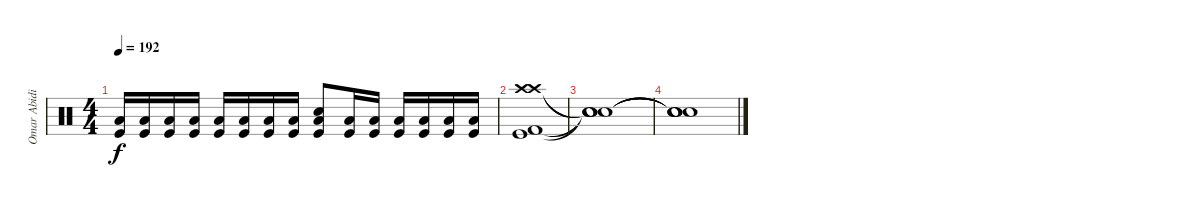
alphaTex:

\track ("Omar Abidi" "Omar Abidi") {instrument percussion}
\staff {score}
\articulation defaults
\ts (4 4)
\tempo 192
\clef neutral
\ks c
("Low Floor Tom (hit)" "Kick (hit)").16{dy f} ("Low Floor Tom (hit)" "Kick (hit)").16 ("Low Floor Tom (hit)" "Kick (hit)").16 ("Low Floor Tom (hit)" "Kick (hit)").16 ("Low Floor Tom (hit)" "Kick (hit)").16 ("Low Floor Tom (hit)" "Kick (hit)").16 ("Low Floor Tom (hit)" "Kick (hit)").16 ("Low Floor Tom (hit)" "Kick (hit)").16 ("Low Floor Tom (hit)" "Snare (hit) 2" "Kick (hit)").8 ("Low Floor Tom (hit)" "Kick (hit)").16 ("Low Floor Tom (hit)" "Kick (hit)").16 ("Low Floor Tom (hit)" "Kick (hit)").16 ("Low Floor Tom (hit)" "Kick (hit)").16 ("Low Floor Tom (hit)" "Kick (hit)").16 ("Low Floor Tom (hit)" "Kick (hit)").16 |
("Crash high (hit)" "Crash high (hit)" "Kick (hit) 2" "Kick (hit)").1 |
("Snare (hit)"{t} "Snare (hit)"{t} "Snare (hit)"{t} "Snare (hit)"{t}).1 |
("Snare (hit)"{t} "Snare (hit)"{t} "Snare (hit)"{t} "Snare (hit)"{t}).1
